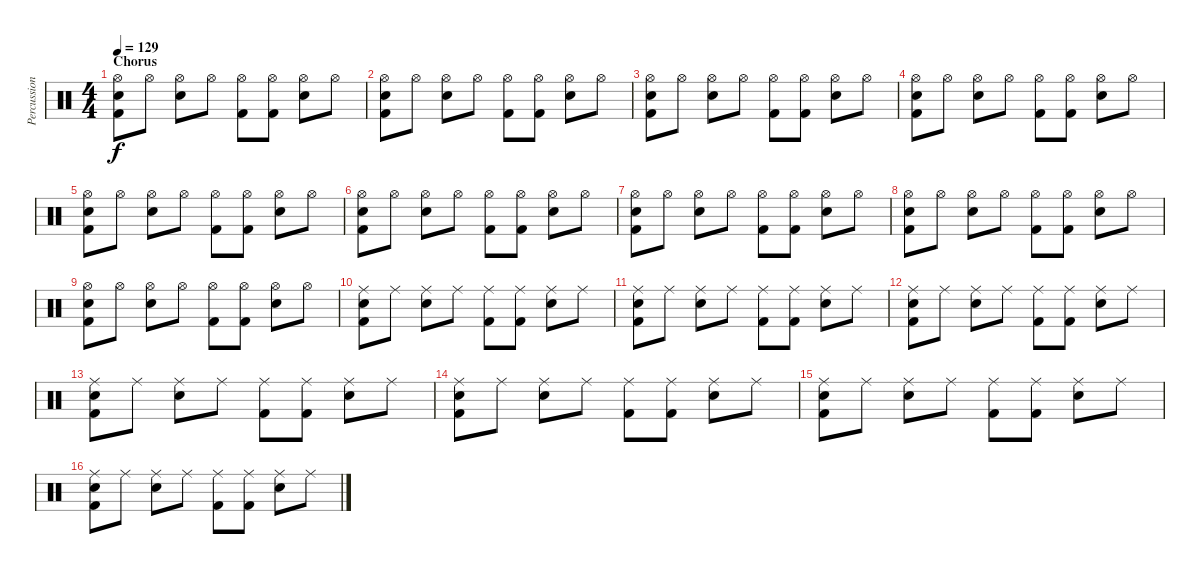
\track ("Percussion" "Percussion") {instrument percussion}
\staff {score}
\articulation defaults
\ts (4 4)
\section ("" "Chorus")
\tempo 129
\clef neutral
\ks c
("Hi-Hat (open)" "Electric Snare (hit)" "Kick (hit) 2").8{dy f} "Hi-Hat (open)".8 ("Hi-Hat (open)" "Electric Snare (hit)").8 "Hi-Hat (open)".8 ("Hi-Hat (open)" "Kick (hit) 2").8 ("Hi-Hat (open)" "Kick (hit) 2").8 ("Hi-Hat (open)" "Electric Snare (hit)").8 "Hi-Hat (open)".8 |
("Hi-Hat (open)" "Electric Snare (hit)" "Kick (hit) 2").8 "Hi-Hat (open)".8 ("Hi-Hat (open)" "Electric Snare (hit)").8 "Hi-Hat (open)".8 ("Hi-Hat (open)" "Kick (hit) 2").8 ("Hi-Hat (open)" "Kick (hit) 2").8 ("Hi-Hat (open)" "Electric Snare (hit)").8 "Hi-Hat (open)".8 |
("Hi-Hat (open)" "Electric Snare (hit)" "Kick (hit) 2").8 "Hi-Hat (open)".8 ("Hi-Hat (open)" "Electric Snare (hit)").8 "Hi-Hat (open)".8 ("Hi-Hat (open)" "Kick (hit) 2").8 ("Hi-Hat (open)" "Kick (hit) 2").8 ("Hi-Hat (open)" "Electric Snare (hit)").8 "Hi-Hat (open)".8 |
("Hi-Hat (open)" "Electric Snare (hit)" "Kick (hit) 2").8 "Hi-Hat (open)".8 ("Hi-Hat (open)" "Electric Snare (hit)").8 "Hi-Hat (open)".8 ("Hi-Hat (open)" "Kick (hit) 2").8 ("Hi-Hat (open)" "Kick (hit) 2").8 ("Hi-Hat (open)" "Electric Snare (hit)").8 "Hi-Hat (open)".8 |
("Hi-Hat (open)" "Electric Snare (hit)" "Kick (hit) 2").8 "Hi-Hat (open)".8 ("Hi-Hat (open)" "Electric Snare (hit)").8 "Hi-Hat (open)".8 ("Hi-Hat (open)" "Kick (hit) 2").8 ("Hi-Hat (open)" "Kick (hit) 2").8 ("Hi-Hat (open)" "Electric Snare (hit)").8 "Hi-Hat (open)".8 |
("Hi-Hat (open)" "Electric Snare (hit)" "Kick (hit) 2").8 "Hi-Hat (open)".8 ("Hi-Hat (open)" "Electric Snare (hit)").8 "Hi-Hat (open)".8 ("Hi-Hat (open)" "Kick (hit) 2").8 ("Hi-Hat (open)" "Kick (hit) 2").8 ("Hi-Hat (open)" "Electric Snare (hit)").8 "Hi-Hat (open)".8 |
("Hi-Hat (open)" "Electric Snare (hit)" "Kick (hit) 2").8 "Hi-Hat (open)".8 ("Hi-Hat (open)" "Electric Snare (hit)").8 "Hi-Hat (open)".8 ("Hi-Hat (open)" "Kick (hit) 2").8 ("Hi-Hat (open)" "Kick (hit) 2").8 ("Hi-Hat (open)" "Electric Snare (hit)").8 "Hi-Hat (open)".8 |
("Hi-Hat (open)" "Electric Snare (hit)" "Kick (hit) 2").8 "Hi-Hat (open)".8 ("Hi-Hat (open)" "Electric Snare (hit)").8 "Hi-Hat (open)".8 ("Hi-Hat (open)" "Kick (hit) 2").8 ("Hi-Hat (open)" "Kick (hit) 2").8 ("Hi-Hat (open)" "Electric Snare (hit)").8 "Hi-Hat (open)".8 |
("Hi-Hat (open)" "Electric Snare (hit)" "Kick (hit) 2").8 "Hi-Hat (open)".8 ("Hi-Hat (open)" "Electric Snare (hit)").8 "Hi-Hat (open)".8 ("Hi-Hat (open)" "Kick (hit) 2").8 ("Hi-Hat (open)" "Kick (hit) 2").8 ("Hi-Hat (open)" "Electric Snare (hit)").8 "Hi-Hat (open)".8 |
("Ride (middle)" "Electric Snare (hit)" "Kick (hit) 2").8 "Ride (middle)".8 ("Ride (middle)" "Electric Snare (hit)").8 "Ride (middle)".8 ("Ride (middle)" "Kick (hit) 2").8 ("Ride (middle)" "Kick (hit) 2").8 ("Ride (middle)" "Electric Snare (hit)").8 "Ride (middle)".8 |
("Ride (middle)" "Electric Snare (hit)" "Kick (hit) 2").8 "Ride (middle)".8 ("Ride (middle)" "Electric Snare (hit)").8 "Ride (middle)".8 ("Ride (middle)" "Kick (hit) 2").8 ("Ride (middle)" "Kick (hit) 2").8 ("Ride (middle)" "Electric Snare (hit)").8 "Ride (middle)".8 |
("Ride (middle)" "Electric Snare (hit)" "Kick (hit) 2").8 "Ride (middle)".8 ("Ride (middle)" "Electric Snare (hit)").8 "Ride (middle)".8 ("Ride (middle)" "Kick (hit) 2").8 ("Ride (middle)" "Kick (hit) 2").8 ("Ride (middle)" "Electric Snare (hit)").8 "Ride (middle)".8 |
("Ride (middle)" "Electric Snare (hit)" "Kick (hit) 2").8 "Ride (middle)".8 ("Ride (middle)" "Electric Snare (hit)").8 "Ride (middle)".8 ("Ride (middle)" "Kick (hit) 2").8 ("Ride (middle)" "Kick (hit) 2").8 ("Ride (middle)" "Electric Snare (hit)").8 "Ride (middle)".8 |
("Ride (middle)" "Electric Snare (hit)" "Kick (hit) 2").8 "Ride (middle)".8 ("Ride (middle)" "Electric Snare (hit)").8 "Ride (middle)".8 ("Ride (middle)" "Kick (hit) 2").8 ("Ride (middle)" "Kick (hit) 2").8 ("Ride (middle)" "Electric Snare (hit)").8 "Ride (middle)".8 |
("Ride (middle)" "Electric Snare (hit)" "Kick (hit) 2").8 "Ride (middle)".8 ("Ride (middle)" "Electric Snare (hit)").8 "Ride (middle)".8 ("Ride (middle)" "Kick (hit) 2").8 ("Ride (middle)" "Kick (hit) 2").8 ("Ride (middle)" "Electric Snare (hit)").8 "Ride (middle)".8 |
("Ride (middle)" "Electric Snare (hit)" "Kick (hit) 2").8 "Ride (middle)".8 ("Ride (middle)" "Electric Snare (hit)").8 "Ride (middle)".8 ("Ride (middle)" "Kick (hit) 2").8 ("Ride (middle)" "Kick (hit) 2").8 ("Ride (middle)" "Electric Snare (hit)").8 "Ride (middle)".8
